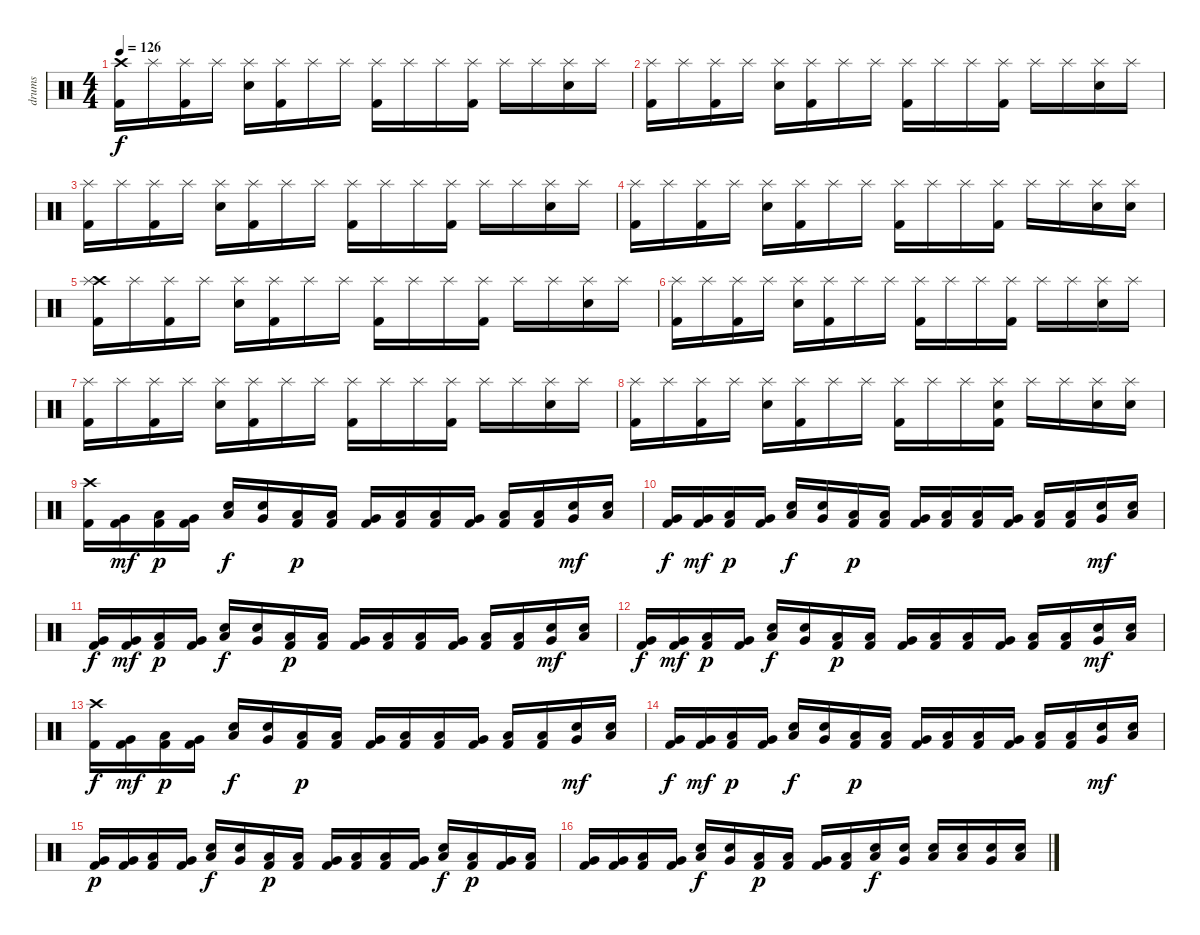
\track ("drums" "drums") {instrument percussion}
\staff {score}
\articulation defaults
\ts (4 4)
\tempo 126
\clef neutral
\ks c
("Crash high (hit)" "Kick (hit) 2").16{dy f} "Splash (hit)".16 ("Splash (hit)" "Kick (hit) 2").16 "Splash (hit)".16 ("Splash (hit)" "Snare (hit) 2").16 ("Splash (hit)" "Kick (hit) 2").16 "Splash (hit)".16 "Splash (hit)".16 ("Splash (hit)" "Kick (hit) 2").16 "Splash (hit)".16 "Splash (hit)".16 ("Splash (hit)" "Kick (hit) 2").16 "Splash (hit)".16 "Splash (hit)".16 ("Splash (hit)" "Snare (hit) 2").16 "Splash (hit)".16 |
("Splash (hit)" "Kick (hit) 2").16 "Splash (hit)".16 ("Splash (hit)" "Kick (hit) 2").16 "Splash (hit)".16 ("Splash (hit)" "Snare (hit) 2").16 ("Splash (hit)" "Kick (hit) 2").16 "Splash (hit)".16 "Splash (hit)".16 ("Splash (hit)" "Kick (hit) 2").16 "Splash (hit)".16 "Splash (hit)".16 ("Splash (hit)" "Kick (hit) 2").16 "Splash (hit)".16 "Splash (hit)".16 ("Splash (hit)" "Snare (hit) 2").16 "Splash (hit)".16 |
("Splash (hit)" "Kick (hit) 2").16 "Splash (hit)".16 ("Splash (hit)" "Kick (hit) 2").16 "Splash (hit)".16 ("Splash (hit)" "Snare (hit) 2").16 ("Splash (hit)" "Kick (hit) 2").16 "Splash (hit)".16 "Splash (hit)".16 ("Splash (hit)" "Kick (hit) 2").16 "Splash (hit)".16 "Splash (hit)".16 ("Splash (hit)" "Kick (hit) 2").16 "Splash (hit)".16 "Splash (hit)".16 ("Splash (hit)" "Snare (hit) 2").16 "Splash (hit)".16 |
("Splash (hit)" "Kick (hit) 2").16 "Splash (hit)".16 ("Splash (hit)" "Kick (hit) 2").16 "Splash (hit)".16 ("Splash (hit)" "Snare (hit) 2").16 ("Splash (hit)" "Kick (hit) 2").16 "Splash (hit)".16 "Splash (hit)".16 ("Splash (hit)" "Kick (hit) 2").16 "Splash (hit)".16 "Splash (hit)".16 ("Splash (hit)" "Kick (hit) 2").16 "Splash (hit)".16 "Splash (hit)".16 ("Splash (hit)" "Snare (hit) 2").16 ("Splash (hit)" "Snare (hit) 2").16 |
("Crash high (hit)" "Splash (hit)" "Kick (hit) 2").16 "Splash (hit)".16 ("Splash (hit)" "Kick (hit) 2").16 "Splash (hit)".16 ("Splash (hit)" "Snare (hit) 2").16 ("Splash (hit)" "Kick (hit) 2").16 "Splash (hit)".16 "Splash (hit)".16 ("Splash (hit)" "Kick (hit) 2").16 "Splash (hit)".16 "Splash (hit)".16 ("Splash (hit)" "Kick (hit) 2").16 "Splash (hit)".16 "Splash (hit)".16 ("Splash (hit)" "Snare (hit) 2").16 "Splash (hit)".16 |
("Splash (hit)" "Kick (hit) 2").16 "Splash (hit)".16 ("Splash (hit)" "Kick (hit) 2").16 "Splash (hit)".16 ("Splash (hit)" "Snare (hit) 2").16 ("Splash (hit)" "Kick (hit) 2").16 "Splash (hit)".16 "Splash (hit)".16 ("Splash (hit)" "Kick (hit) 2").16 "Splash (hit)".16 "Splash (hit)".16 ("Splash (hit)" "Kick (hit) 2").16 "Splash (hit)".16 "Splash (hit)".16 ("Splash (hit)" "Snare (hit) 2").16 "Splash (hit)".16 |
("Splash (hit)" "Kick (hit) 2").16 "Splash (hit)".16 ("Splash (hit)" "Kick (hit) 2").16 "Splash (hit)".16 ("Splash (hit)" "Snare (hit) 2").16 ("Splash (hit)" "Kick (hit) 2").16 "Splash (hit)".16 "Splash (hit)".16 ("Splash (hit)" "Kick (hit) 2").16 "Splash (hit)".16 "Splash (hit)".16 ("Splash (hit)" "Kick (hit) 2").16 "Splash (hit)".16 "Splash (hit)".16 ("Splash (hit)" "Snare (hit) 2").16 "Splash (hit)".16 |
("Splash (hit)" "Kick (hit) 2").16 "Splash (hit)".16 ("Splash (hit)" "Kick (hit) 2").16 "Splash (hit)".16 ("Splash (hit)" "Snare (hit) 2").16 ("Splash (hit)" "Kick (hit) 2").16 "Splash (hit)".16 "Splash (hit)".16 ("Splash (hit)" "Kick (hit) 2").16 "Splash (hit)".16 "Splash (hit)".16 ("Splash (hit)" "Kick (hit) 2" "Snare (hit) 2").16 "Splash (hit)".16 "Splash (hit)".16 ("Splash (hit)" "Snare (hit) 2").16 ("Splash (hit)" "Snare (hit) 2").16 |
("Kick (hit) 2" "Crash high (hit)").16 ("Very Low Tom (hit)" "Kick (hit) 2").16{bd 480 dy mf} ("Low Floor Tom (hit)" "Kick (hit) 2").16{bd 480 dy p} ("Very Low Tom (hit)" "Kick (hit) 2").16{bd 480} ("Low Tom (hit)" "Snare (hit) 2").16{dy f} ("Very Low Tom (hit)" "Snare (hit) 2").16 ("Low Floor Tom (hit)" "Kick (hit) 2").16{bd 480 dy p} ("Low Tom (hit)" "Kick (hit) 2").16{bd 480} ("Very Low Tom (hit)" "Kick (hit) 2").16{bd 480} ("Low Floor Tom (hit)" "Kick (hit) 2").16{bd 480} ("Low Tom (hit)" "Kick (hit) 2").16{bd 480} ("Very Low Tom (hit)" "Kick (hit) 2").16{bd 480} ("Low Floor Tom (hit)" "Kick (hit) 2").16{bd 480} ("Low Tom (hit)" "Kick (hit) 2").16{bd 480} ("Very Low Tom (hit)" "Snare (hit) 2").16{bd 480 dy mf} ("Low Floor Tom (hit)" "Snare (hit) 2").16{bd 480} |
("Very Low Tom (hit)" "Kick (hit) 2").16{dy f} ("Very Low Tom (hit)" "Kick (hit) 2").16{bd 480 dy mf} ("Low Floor Tom (hit)" "Kick (hit) 2").16{bd 480 dy p} ("Very Low Tom (hit)" "Kick (hit) 2").16{bd 480} ("Low Tom (hit)" "Snare (hit) 2").16{dy f} ("Very Low Tom (hit)" "Snare (hit) 2").16 ("Low Floor Tom (hit)" "Kick (hit) 2").16{bd 480 dy p} ("Low Tom (hit)" "Kick (hit) 2").16{bd 480} ("Very Low Tom (hit)" "Kick (hit) 2").16{bd 480} ("Low Floor Tom (hit)" "Kick (hit) 2").16{bd 480} ("Low Tom (hit)" "Kick (hit) 2").16{bd 480} ("Very Low Tom (hit)" "Kick (hit) 2").16{bd 480} ("Low Floor Tom (hit)" "Kick (hit) 2").16{bd 480} ("Low Tom (hit)" "Kick (hit) 2").16{bd 480} ("Very Low Tom (hit)" "Snare (hit) 2").16{bd 480 dy mf} ("Low Floor Tom (hit)" "Snare (hit) 2").16{bd 480} |
("Very Low Tom (hit)" "Kick (hit) 2").16{dy f} ("Very Low Tom (hit)" "Kick (hit) 2").16{bd 480 dy mf} ("Low Floor Tom (hit)" "Kick (hit) 2").16{bd 480 dy p} ("Very Low Tom (hit)" "Kick (hit) 2").16{bd 480} ("Low Tom (hit)" "Snare (hit) 2").16{dy f} ("Very Low Tom (hit)" "Snare (hit) 2").16 ("Low Floor Tom (hit)" "Kick (hit) 2").16{bd 480 dy p} ("Low Tom (hit)" "Kick (hit) 2").16{bd 480} ("Very Low Tom (hit)" "Kick (hit) 2").16{bd 480} ("Low Floor Tom (hit)" "Kick (hit) 2").16{bd 480} ("Low Tom (hit)" "Kick (hit) 2").16{bd 480} ("Very Low Tom (hit)" "Kick (hit) 2").16{bd 480} ("Low Floor Tom (hit)" "Kick (hit) 2").16{bd 480} ("Low Tom (hit)" "Kick (hit) 2").16{bd 480} ("Very Low Tom (hit)" "Snare (hit) 2").16{bd 480 dy mf} ("Low Floor Tom (hit)" "Snare (hit) 2").16{bd 480} |
("Very Low Tom (hit)" "Kick (hit) 2").16{dy f} ("Very Low Tom (hit)" "Kick (hit) 2").16{bd 480 dy mf} ("Low Floor Tom (hit)" "Kick (hit) 2").16{bd 480 dy p} ("Very Low Tom (hit)" "Kick (hit) 2").16{bd 480} ("Low Tom (hit)" "Snare (hit) 2").16{dy f} ("Very Low Tom (hit)" "Snare (hit) 2").16 ("Low Floor Tom (hit)" "Kick (hit) 2").16{bd 480 dy p} ("Low Tom (hit)" "Kick (hit) 2").16{bd 480} ("Very Low Tom (hit)" "Kick (hit) 2").16{bd 480} ("Low Floor Tom (hit)" "Kick (hit) 2").16{bd 480} ("Low Tom (hit)" "Kick (hit) 2").16{bd 480} ("Very Low Tom (hit)" "Kick (hit) 2").16{bd 480} ("Low Floor Tom (hit)" "Kick (hit) 2").16{bd 480} ("Low Tom (hit)" "Kick (hit) 2").16{bd 480} ("Very Low Tom (hit)" "Snare (hit) 2").16{bd 480 dy mf} ("Low Floor Tom (hit)" "Snare (hit) 2").16{bd 480} |
("Kick (hit) 2" "Crash high (hit)").16{dy f} ("Very Low Tom (hit)" "Kick (hit) 2").16{bd 480 dy mf} ("Low Floor Tom (hit)" "Kick (hit) 2").16{bd 480 dy p} ("Very Low Tom (hit)" "Kick (hit) 2").16{bd 480} ("Low Tom (hit)" "Snare (hit) 2").16{dy f} ("Very Low Tom (hit)" "Snare (hit) 2").16 ("Low Floor Tom (hit)" "Kick (hit) 2").16{bd 480 dy p} ("Low Tom (hit)" "Kick (hit) 2").16{bd 480} ("Very Low Tom (hit)" "Kick (hit) 2").16{bd 480} ("Low Floor Tom (hit)" "Kick (hit) 2").16{bd 480} ("Low Tom (hit)" "Kick (hit) 2").16{bd 480} ("Very Low Tom (hit)" "Kick (hit) 2").16{bd 480} ("Low Floor Tom (hit)" "Kick (hit) 2").16{bd 480} ("Low Tom (hit)" "Kick (hit) 2").16{bd 480} ("Very Low Tom (hit)" "Snare (hit) 2").16{bd 480 dy mf} ("Low Floor Tom (hit)" "Snare (hit) 2").16{bd 480} |
("Very Low Tom (hit)" "Kick (hit) 2").16{dy f} ("Very Low Tom (hit)" "Kick (hit) 2").16{bd 480 dy mf} ("Low Floor Tom (hit)" "Kick (hit) 2").16{bd 480 dy p} ("Very Low Tom (hit)" "Kick (hit) 2").16{bd 480} ("Low Tom (hit)" "Snare (hit) 2").16{dy f} ("Very Low Tom (hit)" "Snare (hit) 2").16 ("Low Floor Tom (hit)" "Kick (hit) 2").16{bd 480 dy p} ("Low Tom (hit)" "Kick (hit) 2").16{bd 480} ("Very Low Tom (hit)" "Kick (hit) 2").16{bd 480} ("Low Floor Tom (hit)" "Kick (hit) 2").16{bd 480} ("Low Tom (hit)" "Kick (hit) 2").16{bd 480} ("Very Low Tom (hit)" "Kick (hit) 2").16{bd 480} ("Low Floor Tom (hit)" "Kick (hit) 2").16{bd 480} ("Low Tom (hit)" "Kick (hit) 2").16{bd 480} ("Very Low Tom (hit)" "Snare (hit) 2").16{bd 480 dy mf} ("Low Floor Tom (hit)" "Snare (hit) 2").16{bd 480} |
("Very Low Tom (hit)" "Kick (hit) 2").16{dy p} ("Very Low Tom (hit)" "Kick (hit) 2").16{bd 480} ("Low Floor Tom (hit)" "Kick (hit) 2").16{bd 480} ("Very Low Tom (hit)" "Kick (hit) 2").16{bd 480} ("Low Tom (hit)" "Snare (hit) 2").16{dy f} ("Very Low Tom (hit)" "Snare (hit) 2").16 ("Low Floor Tom (hit)" "Kick (hit) 2").16{bd 480 dy p} ("Low Tom (hit)" "Kick (hit) 2").16{bd 480} ("Very Low Tom (hit)" "Kick (hit) 2").16{bd 480} ("Low Floor Tom (hit)" "Kick (hit) 2").16{bd 480} ("Low Tom (hit)" "Kick (hit) 2").16{bd 480} ("Very Low Tom (hit)" "Kick (hit) 2").16{bd 480} ("Low Floor Tom (hit)" "Snare (hit) 2").16{bd 480 dy f} ("Low Tom (hit)" "Kick (hit) 2").16{bd 480 dy p} ("Very Low Tom (hit)" "Kick (hit) 2").16{bd 480} ("Low Floor Tom (hit)" "Kick (hit) 2").16{bd 480} |
("Very Low Tom (hit)" "Kick (hit) 2").16 ("Very Low Tom (hit)" "Kick (hit) 2").16{bd 480} ("Low Floor Tom (hit)" "Kick (hit) 2").16{bd 480} ("Very Low Tom (hit)" "Kick (hit) 2").16{bd 480} ("Low Tom (hit)" "Snare (hit) 2").16{dy f} ("Very Low Tom (hit)" "Snare (hit) 2").16 ("Low Floor Tom (hit)" "Kick (hit) 2").16{bd 480 dy p} ("Low Tom (hit)" "Kick (hit) 2").16{bd 480} ("Very Low Tom (hit)" "Kick (hit) 2").16{bd 480} ("Low Floor Tom (hit)" "Kick (hit) 2").16{bd 480} ("Low Tom (hit)" "Snare (hit) 2").16{bd 480 dy f} ("Very Low Tom (hit)" "Snare (hit) 2").16{bd 480} ("Low Floor Tom (hit)" "Snare (hit) 2").16{bd 480} ("Low Tom (hit)" "Snare (hit) 2").16{bd 480} ("Very Low Tom (hit)" "Snare (hit) 2").16{bd 480} ("Low Floor Tom (hit)" "Snare (hit) 2").16{bd 480}
